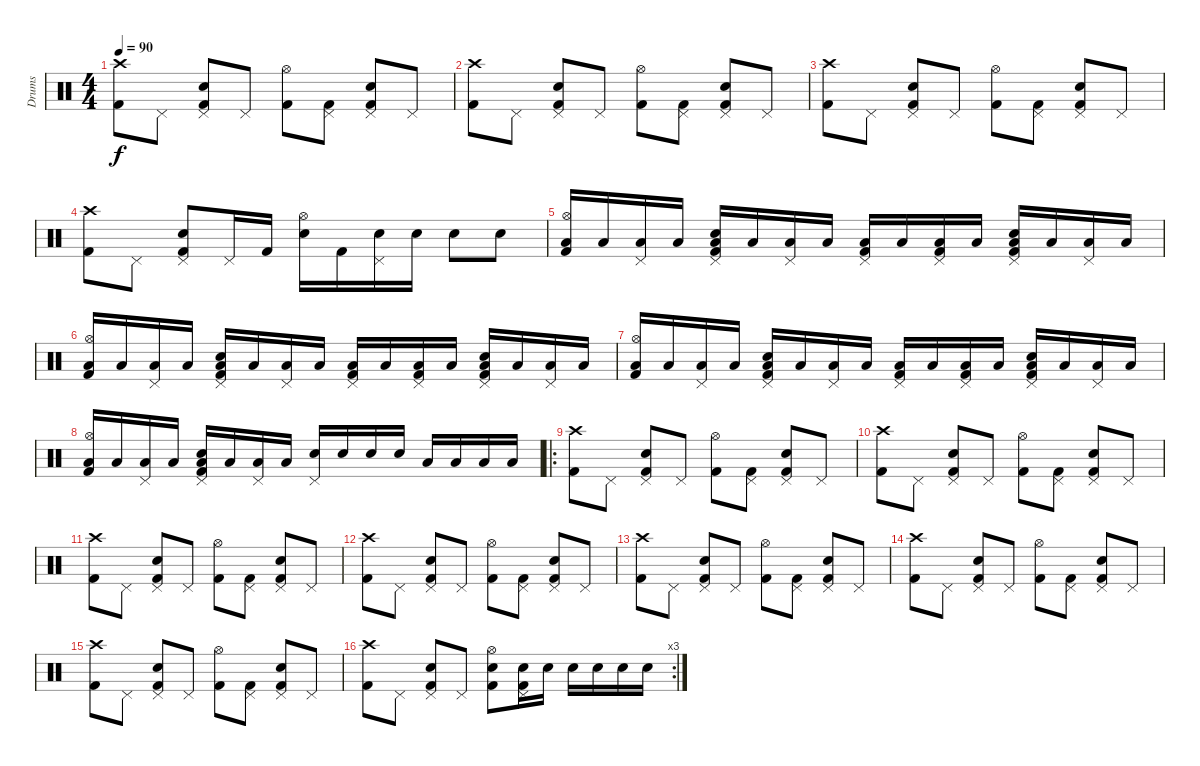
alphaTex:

\track ("Drums" "Drums") {instrument percussion}
\staff {score}
\articulation defaults
\ts (4 4)
\tempo 90
\clef neutral
\ks c
("Crash high (hit)" "Kick (hit) 2").8{dy f} "Pedal Hi-Hat (hit)".8 ("Pedal Hi-Hat (hit)" "Electric Snare (hit)" "Kick (hit) 2").8 "Pedal Hi-Hat (hit)".8 ("Hi-Hat (open)" "Kick (hit) 2").8 ("Pedal Hi-Hat (hit)" "Kick (hit) 2").8 ("Pedal Hi-Hat (hit)" "Electric Snare (hit)" "Kick (hit) 2").8 "Pedal Hi-Hat (hit)".8 |
("Crash high (hit)" "Kick (hit) 2").8 "Pedal Hi-Hat (hit)".8 ("Pedal Hi-Hat (hit)" "Electric Snare (hit)" "Kick (hit) 2").8 "Pedal Hi-Hat (hit)".8 ("Hi-Hat (open)" "Kick (hit) 2").8 ("Pedal Hi-Hat (hit)" "Kick (hit) 2").8 ("Pedal Hi-Hat (hit)" "Electric Snare (hit)" "Kick (hit) 2").8 "Pedal Hi-Hat (hit)".8 |
("Crash high (hit)" "Kick (hit) 2").8 "Pedal Hi-Hat (hit)".8 ("Pedal Hi-Hat (hit)" "Electric Snare (hit)" "Kick (hit) 2").8 "Pedal Hi-Hat (hit)".8 ("Hi-Hat (open)" "Kick (hit) 2").8 ("Pedal Hi-Hat (hit)" "Kick (hit) 2").8 ("Pedal Hi-Hat (hit)" "Electric Snare (hit)" "Kick (hit) 2").8 "Pedal Hi-Hat (hit)".8 |
("Crash high (hit)" "Kick (hit) 2").8 "Pedal Hi-Hat (hit)".8 ("Pedal Hi-Hat (hit)" "Electric Snare (hit)" "Kick (hit) 2").8 "Pedal Hi-Hat (hit)".16 "Kick (hit) 2".16 ("Hi-Hat (open)" "Snare (hit) 2").16 "Kick (hit) 2".16 ("Pedal Hi-Hat (hit)" "Electric Snare (hit)").16 "Electric Snare (hit)".16 "Electric Snare (hit)".8 "Electric Snare (hit)".8 |
("Hi-Hat (open)" "Kick (hit) 2" "Low Tom (hit)").16 "Low Tom (hit)".16 ("Pedal Hi-Hat (hit)" "Low Tom (hit)").16 "Low Tom (hit)".16 ("Pedal Hi-Hat (hit)" "Electric Snare (hit)" "Kick (hit) 2" "Low Tom (hit)").16 "Low Tom (hit)".16 ("Pedal Hi-Hat (hit)" "Low Tom (hit)").16 "Low Tom (hit)".16 ("Pedal Hi-Hat (hit)" "Kick (hit) 2" "Low Tom (hit)").16 "Low Tom (hit)".16 ("Pedal Hi-Hat (hit)" "Kick (hit) 2" "Low Tom (hit)").16 "Low Tom (hit)".16 ("Pedal Hi-Hat (hit)" "Electric Snare (hit)" "Kick (hit) 2" "Low Tom (hit)").16 "Low Tom (hit)".16 ("Pedal Hi-Hat (hit)" "Low Tom (hit)").16 "Low Tom (hit)".16 |
("Hi-Hat (open)" "Kick (hit) 2" "Low Tom (hit)").16 "Low Tom (hit)".16 ("Pedal Hi-Hat (hit)" "Low Tom (hit)").16 "Low Tom (hit)".16 ("Pedal Hi-Hat (hit)" "Electric Snare (hit)" "Kick (hit) 2" "Low Tom (hit)").16 "Low Tom (hit)".16 ("Pedal Hi-Hat (hit)" "Low Tom (hit)").16 "Low Tom (hit)".16 ("Pedal Hi-Hat (hit)" "Kick (hit) 2" "Low Tom (hit)").16 "Low Tom (hit)".16 ("Pedal Hi-Hat (hit)" "Kick (hit) 2" "Low Tom (hit)").16 "Low Tom (hit)".16 ("Pedal Hi-Hat (hit)" "Electric Snare (hit)" "Kick (hit) 2" "Low Tom (hit)").16 "Low Tom (hit)".16 ("Pedal Hi-Hat (hit)" "Low Tom (hit)").16 "Low Tom (hit)".16 |
("Hi-Hat (open)" "Kick (hit) 2" "Low Tom (hit)").16 "Low Tom (hit)".16 ("Pedal Hi-Hat (hit)" "Low Tom (hit)").16 "Low Tom (hit)".16 ("Pedal Hi-Hat (hit)" "Electric Snare (hit)" "Kick (hit) 2" "Low Tom (hit)").16 "Low Tom (hit)".16 ("Pedal Hi-Hat (hit)" "Low Tom (hit)").16 "Low Tom (hit)".16 ("Pedal Hi-Hat (hit)" "Kick (hit) 2" "Low Tom (hit)").16 "Low Tom (hit)".16 ("Pedal Hi-Hat (hit)" "Kick (hit) 2" "Low Tom (hit)").16 "Low Tom (hit)".16 ("Pedal Hi-Hat (hit)" "Electric Snare (hit)" "Kick (hit) 2" "Low Tom (hit)").16 "Low Tom (hit)".16 ("Pedal Hi-Hat (hit)" "Low Tom (hit)").16 "Low Tom (hit)".16 |
("Hi-Hat (open)" "Kick (hit) 2" "Low Tom (hit)").16 "Low Tom (hit)".16 ("Pedal Hi-Hat (hit)" "Low Tom (hit)").16 "Low Tom (hit)".16 ("Pedal Hi-Hat (hit)" "Electric Snare (hit)" "Kick (hit) 2" "Low Tom (hit)").16 "Low Tom (hit)".16 ("Pedal Hi-Hat (hit)" "Low Tom (hit)").16 "Low Tom (hit)".16 ("Pedal Hi-Hat (hit)" "Electric Snare (hit)").16 "Electric Snare (hit)".16 "Electric Snare (hit)".16 "Electric Snare (hit)".16 "Low Tom (hit)".16 "Low Tom (hit)".16 "Low Tom (hit)".16 "Low Tom (hit)".16 |
\ro
("Crash high (hit)" "Kick (hit) 2").8 "Pedal Hi-Hat (hit)".8 ("Pedal Hi-Hat (hit)" "Electric Snare (hit)" "Kick (hit) 2").8 "Pedal Hi-Hat (hit)".8 ("Hi-Hat (open)" "Kick (hit) 2").8 ("Pedal Hi-Hat (hit)" "Kick (hit) 2").8 ("Pedal Hi-Hat (hit)" "Electric Snare (hit)" "Kick (hit) 2").8 "Pedal Hi-Hat (hit)".8 |
("Crash high (hit)" "Kick (hit) 2").8 "Pedal Hi-Hat (hit)".8 ("Pedal Hi-Hat (hit)" "Electric Snare (hit)" "Kick (hit) 2").8 "Pedal Hi-Hat (hit)".8 ("Hi-Hat (open)" "Kick (hit) 2").8 ("Pedal Hi-Hat (hit)" "Kick (hit) 2").8 ("Pedal Hi-Hat (hit)" "Electric Snare (hit)" "Kick (hit) 2").8 "Pedal Hi-Hat (hit)".8 |
("Crash high (hit)" "Kick (hit) 2").8 "Pedal Hi-Hat (hit)".8 ("Pedal Hi-Hat (hit)" "Electric Snare (hit)" "Kick (hit) 2").8 "Pedal Hi-Hat (hit)".8 ("Hi-Hat (open)" "Kick (hit) 2").8 ("Pedal Hi-Hat (hit)" "Kick (hit) 2").8 ("Pedal Hi-Hat (hit)" "Electric Snare (hit)" "Kick (hit) 2").8 "Pedal Hi-Hat (hit)".8 |
("Crash high (hit)" "Kick (hit) 2").8 "Pedal Hi-Hat (hit)".8 ("Pedal Hi-Hat (hit)" "Electric Snare (hit)" "Kick (hit) 2").8 "Pedal Hi-Hat (hit)".8 ("Hi-Hat (open)" "Kick (hit) 2").8 ("Pedal Hi-Hat (hit)" "Kick (hit) 2").8 ("Pedal Hi-Hat (hit)" "Electric Snare (hit)" "Kick (hit) 2").8 "Pedal Hi-Hat (hit)".8 |
("Crash high (hit)" "Kick (hit) 2").8 "Pedal Hi-Hat (hit)".8 ("Pedal Hi-Hat (hit)" "Electric Snare (hit)" "Kick (hit) 2").8 "Pedal Hi-Hat (hit)".8 ("Hi-Hat (open)" "Kick (hit) 2").8 ("Pedal Hi-Hat (hit)" "Kick (hit) 2").8 ("Pedal Hi-Hat (hit)" "Electric Snare (hit)" "Kick (hit) 2").8 "Pedal Hi-Hat (hit)".8 |
("Crash high (hit)" "Kick (hit) 2").8 "Pedal Hi-Hat (hit)".8 ("Pedal Hi-Hat (hit)" "Electric Snare (hit)" "Kick (hit) 2").8 "Pedal Hi-Hat (hit)".8 ("Hi-Hat (open)" "Kick (hit) 2").8 ("Pedal Hi-Hat (hit)" "Kick (hit) 2").8 ("Pedal Hi-Hat (hit)" "Electric Snare (hit)" "Kick (hit) 2").8 "Pedal Hi-Hat (hit)".8 |
("Crash high (hit)" "Kick (hit) 2").8 "Pedal Hi-Hat (hit)".8 ("Pedal Hi-Hat (hit)" "Electric Snare (hit)" "Kick (hit) 2").8 "Pedal Hi-Hat (hit)".8 ("Hi-Hat (open)" "Kick (hit) 2").8 ("Pedal Hi-Hat (hit)" "Kick (hit) 2").8 ("Pedal Hi-Hat (hit)" "Electric Snare (hit)" "Kick (hit) 2").8 "Pedal Hi-Hat (hit)".8 |
\rc 3
("Crash high (hit)" "Kick (hit) 2").8 "Pedal Hi-Hat (hit)".8 ("Pedal Hi-Hat (hit)" "Electric Snare (hit)" "Kick (hit) 2").8 "Pedal Hi-Hat (hit)".8 ("Hi-Hat (open)" "Electric Snare (hit)" "Kick (hit) 2").8 ("Pedal Hi-Hat (hit)" "Electric Snare (hit)" "Kick (hit) 2").16 "Electric Snare (hit)".16 "Electric Snare (hit)".16 "Electric Snare (hit)".16 "Snare (hit) 2".16 "Snare (hit) 2".16
